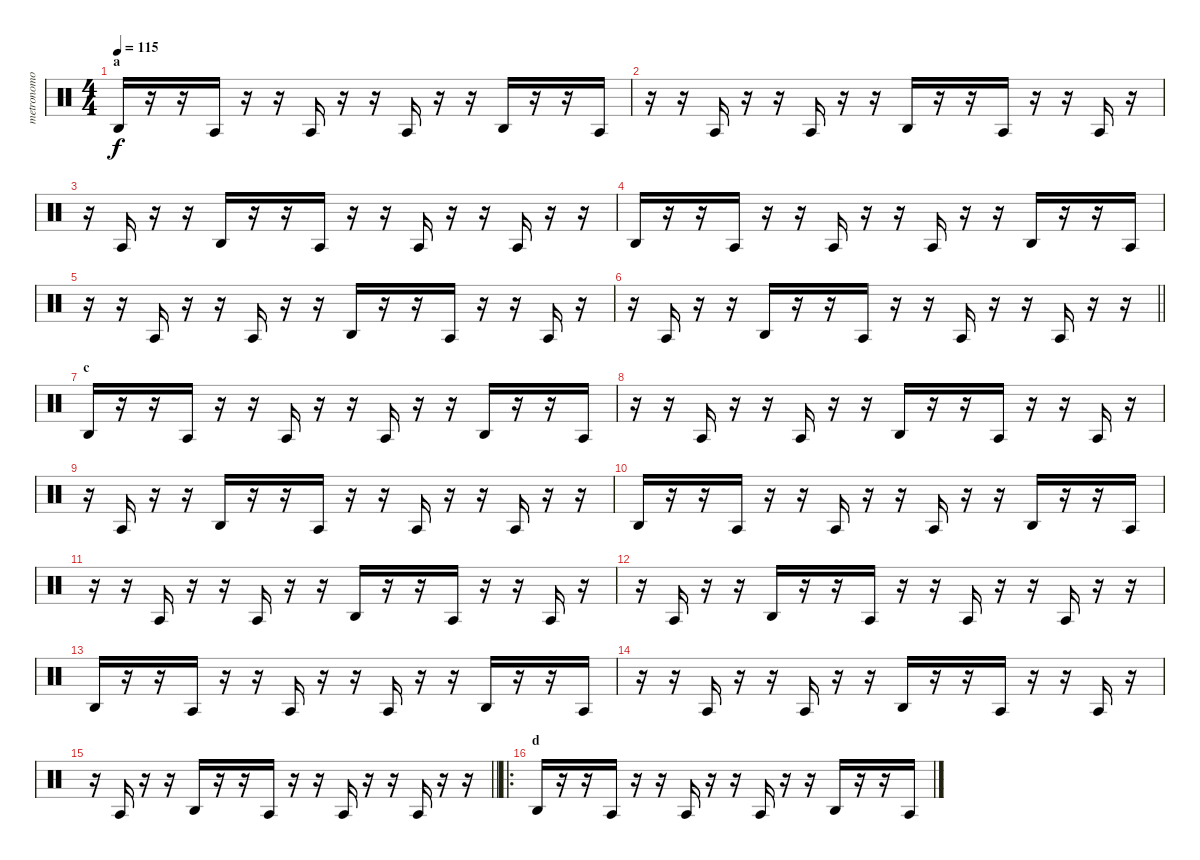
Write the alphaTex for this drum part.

\track ("metronomo" "metronomo") {mute instrument percussion}
\staff {score}
\articulation defaults
\ts (4 4)
\section ("" "a")
\tempo 115
\clef neutral
\ks c "Agogo high (hit)".16{dy f}
r.16 r.16 "Agogo tow (hit)".16 r.16 r.16 "Agogo tow (hit)".16 r.16 r.16 "Agogo tow (hit)".16 r.16 r.16 "Agogo high (hit)".16 r.16 r.16 "Agogo tow (hit)".16 |
r.16 r.16 "Agogo tow (hit)".16 r.16 r.16 "Agogo tow (hit)".16 r.16 r.16 "Agogo high (hit)".16 r.16 r.16 "Agogo tow (hit)".16 r.16 r.16 "Agogo tow (hit)".16 r.16 |
r.16 "Agogo tow (hit)".16 r.16 r.16 "Agogo high (hit)".16 r.16 r.16 "Agogo tow (hit)".16 r.16 r.16 "Agogo tow (hit)".16 r.16 r.16 "Agogo tow (hit)".16 r.16 r.16 |
"Agogo high (hit)".16 r.16 r.16 "Agogo tow (hit)".16 r.16 r.16 "Agogo tow (hit)".16 r.16 r.16 "Agogo tow (hit)".16 r.16 r.16 "Agogo high (hit)".16 r.16 r.16 "Agogo tow (hit)".16 |
r.16 r.16 "Agogo tow (hit)".16 r.16 r.16 "Agogo tow (hit)".16 r.16 r.16 "Agogo high (hit)".16 r.16 r.16 "Agogo tow (hit)".16 r.16 r.16 "Agogo tow (hit)".16 r.16 |
\barLineRight lightlight
r.16 "Agogo tow (hit)".16 r.16 r.16 "Agogo high (hit)".16 r.16 r.16 "Agogo tow (hit)".16 r.16 r.16 "Agogo tow (hit)".16 r.16 r.16 "Agogo tow (hit)".16 r.16 r.16 |
\section ("" "c")
"Agogo high (hit)".16 r.16 r.16 "Agogo tow (hit)".16 r.16 r.16 "Agogo tow (hit)".16 r.16 r.16 "Agogo tow (hit)".16 r.16 r.16 "Agogo high (hit)".16 r.16 r.16 "Agogo tow (hit)".16 |
r.16 r.16 "Agogo tow (hit)".16 r.16 r.16 "Agogo tow (hit)".16 r.16 r.16 "Agogo high (hit)".16 r.16 r.16 "Agogo tow (hit)".16 r.16 r.16 "Agogo tow (hit)".16 r.16 |
r.16 "Agogo tow (hit)".16 r.16 r.16 "Agogo high (hit)".16 r.16 r.16 "Agogo tow (hit)".16 r.16 r.16 "Agogo tow (hit)".16 r.16 r.16 "Agogo tow (hit)".16 r.16 r.16 |
"Agogo high (hit)".16 r.16 r.16 "Agogo tow (hit)".16 r.16 r.16 "Agogo tow (hit)".16 r.16 r.16 "Agogo tow (hit)".16 r.16 r.16 "Agogo high (hit)".16 r.16 r.16 "Agogo tow (hit)".16 |
r.16 r.16 "Agogo tow (hit)".16 r.16 r.16 "Agogo tow (hit)".16 r.16 r.16 "Agogo high (hit)".16 r.16 r.16 "Agogo tow (hit)".16 r.16 r.16 "Agogo tow (hit)".16 r.16 |
r.16 "Agogo tow (hit)".16 r.16 r.16 "Agogo high (hit)".16 r.16 r.16 "Agogo tow (hit)".16 r.16 r.16 "Agogo tow (hit)".16 r.16 r.16 "Agogo tow (hit)".16 r.16 r.16 |
"Agogo high (hit)".16 r.16 r.16 "Agogo tow (hit)".16 r.16 r.16 "Agogo tow (hit)".16 r.16 r.16 "Agogo tow (hit)".16 r.16 r.16 "Agogo high (hit)".16 r.16 r.16 "Agogo tow (hit)".16 |
r.16 r.16 "Agogo tow (hit)".16 r.16 r.16 "Agogo tow (hit)".16 r.16 r.16 "Agogo high (hit)".16 r.16 r.16 "Agogo tow (hit)".16 r.16 r.16 "Agogo tow (hit)".16 r.16 |
\barLineRight lightlight
r.16 "Agogo tow (hit)".16 r.16 r.16 "Agogo high (hit)".16 r.16 r.16 "Agogo tow (hit)".16 r.16 r.16 "Agogo tow (hit)".16 r.16 r.16 "Agogo tow (hit)".16 r.16 r.16 |
\ro
\section ("" "d")
"Agogo high (hit)".16 r.16 r.16 "Agogo tow (hit)".16 r.16 r.16 "Agogo tow (hit)".16 r.16 r.16 "Agogo tow (hit)".16 r.16 r.16 "Agogo high (hit)".16 r.16 r.16 "Agogo tow (hit)".16
